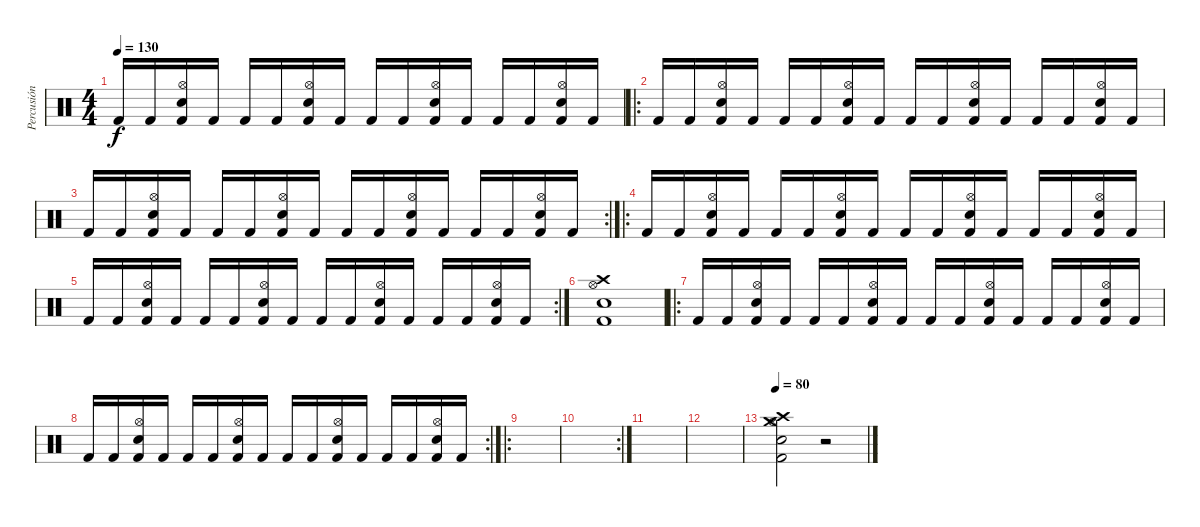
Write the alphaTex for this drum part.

\track ("Percusión" "Percusión") {instrument percussion}
\staff {score}
\articulation defaults
\ts (4 4)
\tempo 130
\clef neutral
\ks c "Kick (hit) 2".16{dy f} "Kick (hit) 2".16
("Hi-Hat (open)" "Electric Snare (hit)" "Kick (hit) 2").16 "Kick (hit) 2".16 "Kick (hit) 2".16 "Kick (hit) 2".16 ("Hi-Hat (open)" "Electric Snare (hit)" "Kick (hit) 2").16 "Kick (hit) 2".16 "Kick (hit) 2".16 "Kick (hit) 2".16 ("Electric Snare (hit)" "Kick (hit) 2" "Hi-Hat (open)").16 "Kick (hit) 2".16 "Kick (hit) 2".16 "Kick (hit) 2".16 ("Electric Snare (hit)" "Kick (hit) 2" "Hi-Hat (open)").16 "Kick (hit) 2".16 |
\ro "Kick (hit) 2".16 "Kick (hit) 2".16
("Hi-Hat (open)" "Electric Snare (hit)" "Kick (hit) 2").16 "Kick (hit) 2".16 "Kick (hit) 2".16 "Kick (hit) 2".16 ("Hi-Hat (open)" "Electric Snare (hit)" "Kick (hit) 2").16 "Kick (hit) 2".16 "Kick (hit) 2".16 "Kick (hit) 2".16 ("Electric Snare (hit)" "Kick (hit) 2" "Hi-Hat (open)").16 "Kick (hit) 2".16 "Kick (hit) 2".16 "Kick (hit) 2".16 ("Electric Snare (hit)" "Kick (hit) 2" "Hi-Hat (open)").16 "Kick (hit) 2".16 |
\rc 2 "Kick (hit) 2".16 "Kick (hit) 2".16
("Hi-Hat (open)" "Electric Snare (hit)" "Kick (hit) 2").16 "Kick (hit) 2".16 "Kick (hit) 2".16 "Kick (hit) 2".16 ("Hi-Hat (open)" "Electric Snare (hit)" "Kick (hit) 2").16 "Kick (hit) 2".16 "Kick (hit) 2".16 "Kick (hit) 2".16 ("Electric Snare (hit)" "Kick (hit) 2" "Hi-Hat (open)").16 "Kick (hit) 2".16 "Kick (hit) 2".16 "Kick (hit) 2".16 ("Electric Snare (hit)" "Kick (hit) 2" "Hi-Hat (open)").16 "Kick (hit) 2".16 |
\ro "Kick (hit) 2".16 "Kick (hit) 2".16
("Hi-Hat (open)" "Electric Snare (hit)" "Kick (hit) 2").16 "Kick (hit) 2".16 "Kick (hit) 2".16 "Kick (hit) 2".16 ("Hi-Hat (open)" "Electric Snare (hit)" "Kick (hit) 2").16 "Kick (hit) 2".16 "Kick (hit) 2".16 "Kick (hit) 2".16 ("Electric Snare (hit)" "Kick (hit) 2" "Hi-Hat (open)").16 "Kick (hit) 2".16 "Kick (hit) 2".16 "Kick (hit) 2".16 ("Electric Snare (hit)" "Kick (hit) 2" "Hi-Hat (open)").16 "Kick (hit) 2".16 |
\rc 2 "Kick (hit) 2".16 "Kick (hit) 2".16
("Hi-Hat (open)" "Electric Snare (hit)" "Kick (hit) 2").16 "Kick (hit) 2".16 "Kick (hit) 2".16 "Kick (hit) 2".16 ("Hi-Hat (open)" "Electric Snare (hit)" "Kick (hit) 2").16 "Kick (hit) 2".16 "Kick (hit) 2".16 "Kick (hit) 2".16 ("Electric Snare (hit)" "Kick (hit) 2" "Hi-Hat (open)").16 "Kick (hit) 2".16 "Kick (hit) 2".16 "Kick (hit) 2".16 ("Electric Snare (hit)" "Kick (hit) 2" "Hi-Hat (open)").16 "Kick (hit) 2".16 |
("Electric Snare (hit)" "Kick (hit) 2" "Hi-Hat (open)" "Crash high (hit)").1 |
\ro "Kick (hit) 2".16 "Kick (hit) 2".16
("Hi-Hat (open)" "Electric Snare (hit)" "Kick (hit) 2").16 "Kick (hit) 2".16 "Kick (hit) 2".16 "Kick (hit) 2".16 ("Hi-Hat (open)" "Electric Snare (hit)" "Kick (hit) 2").16 "Kick (hit) 2".16 "Kick (hit) 2".16 "Kick (hit) 2".16 ("Electric Snare (hit)" "Kick (hit) 2" "Hi-Hat (open)").16 "Kick (hit) 2".16 "Kick (hit) 2".16 "Kick (hit) 2".16 ("Electric Snare (hit)" "Kick (hit) 2" "Hi-Hat (open)").16 "Kick (hit) 2".16 |
\rc 2 "Kick (hit) 2".16 "Kick (hit) 2".16
("Hi-Hat (open)" "Electric Snare (hit)" "Kick (hit) 2").16 "Kick (hit) 2".16 "Kick (hit) 2".16 "Kick (hit) 2".16 ("Hi-Hat (open)" "Electric Snare (hit)" "Kick (hit) 2").16 "Kick (hit) 2".16 "Kick (hit) 2".16 "Kick (hit) 2".16 ("Electric Snare (hit)" "Kick (hit) 2" "Hi-Hat (open)").16 "Kick (hit) 2".16 "Kick (hit) 2".16 "Kick (hit) 2".16 ("Electric Snare (hit)" "Kick (hit) 2" "Hi-Hat (open)").16 "Kick (hit) 2".16 |
\ro
|
\rc 2
|
|
|
\tempo 80
("Crash medium (hit)" "Crash high (hit)" "Kick (hit) 2" "Electric Snare (hit)" "Hi-Hat (open)").2 r.2
